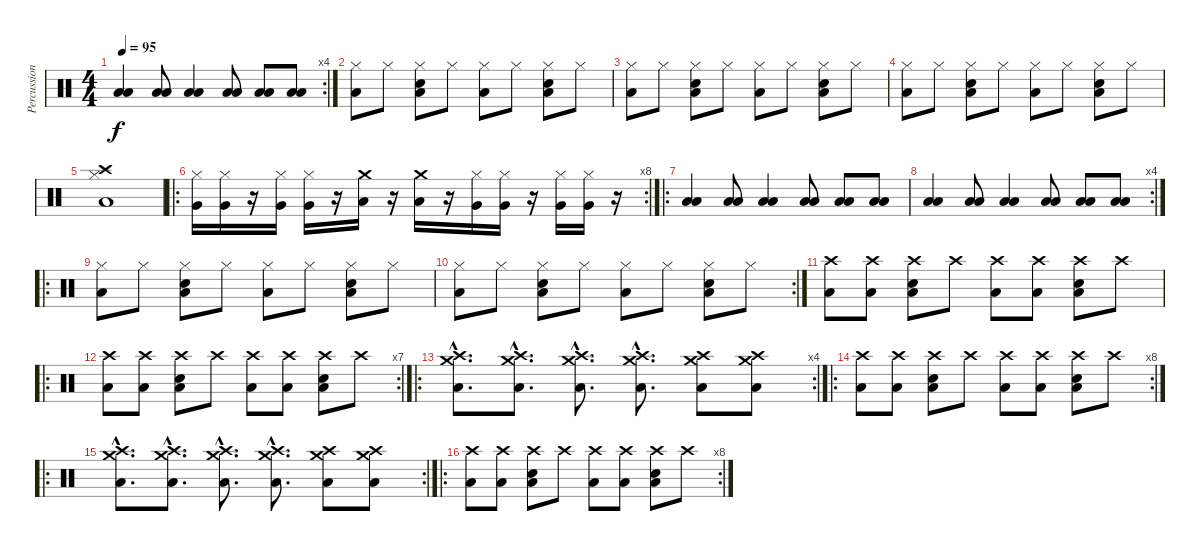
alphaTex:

\track ("Percussions" "Percussion") {instrument percussion}
\staff {score}
\articulation defaults
\rc 4
\ts (4 4)
\tempo 95
\clef neutral
\ks c
("Low Floor Tom (hit)" "Low Tom (hit)").4{dy f} ("Low Floor Tom (hit)" "Low Tom (hit)").8 ("Low Floor Tom (hit)" "Low Tom (hit)").4 ("Low Floor Tom (hit)" "Low Tom (hit)").8 ("Low Floor Tom (hit)" "Low Tom (hit)").8 ("Low Floor Tom (hit)" "Low Tom (hit)").8 |
("Low Floor Tom (hit)" "Hi-Hat (closed)").8 "Hi-Hat (closed)".8 ("Low Floor Tom (hit)" "Snare (hit) 2" "Hi-Hat (closed)").8 "Hi-Hat (closed)".8 ("Low Floor Tom (hit)" "Hi-Hat (closed)").8 "Hi-Hat (closed)".8 ("Low Floor Tom (hit)" "Snare (hit) 2" "Hi-Hat (closed)").8 "Hi-Hat (closed)".8 |
("Low Floor Tom (hit)" "Hi-Hat (closed)").8 "Hi-Hat (closed)".8 ("Low Floor Tom (hit)" "Snare (hit) 2" "Hi-Hat (closed)").8 "Hi-Hat (closed)".8 ("Low Floor Tom (hit)" "Hi-Hat (closed)").8 "Hi-Hat (closed)".8 ("Low Floor Tom (hit)" "Snare (hit) 2" "Hi-Hat (closed)").8 "Hi-Hat (closed)".8 |
("Low Floor Tom (hit)" "Hi-Hat (closed)").8 "Hi-Hat (closed)".8 ("Low Floor Tom (hit)" "Snare (hit) 2" "Hi-Hat (closed)").8 "Hi-Hat (closed)".8 ("Low Floor Tom (hit)" "Hi-Hat (closed)").8 "Hi-Hat (closed)".8 ("Low Floor Tom (hit)" "Snare (hit) 2" "Hi-Hat (closed)").8 "Hi-Hat (closed)".8 |
("Low Floor Tom (hit)" "Crash high (hit)" "Hi-Hat (closed)").1 |
\ro
\rc 8
("Very Low Tom (hit)" "Hi-Hat (closed)").16 ("Very Low Tom (hit)" "Hi-Hat (closed)").16 r.16 ("Very Low Tom (hit)" "Hi-Hat (closed)").16 ("Very Low Tom (hit)" "Hi-Hat (closed)").16 r.16 ("Low Tom (hit)" "Crash medium (hit)").16 r.16 ("Low Tom (hit)" "Crash medium (hit)").16 r.16 ("Very Low Tom (hit)" "Hi-Hat (closed)").16 ("Very Low Tom (hit)" "Hi-Hat (closed)").16 r.16 ("Very Low Tom (hit)" "Hi-Hat (closed)").16 ("Very Low Tom (hit)" "Hi-Hat (closed)").16 r.16 |
\ro
("Low Floor Tom (hit)" "Low Tom (hit)").4 ("Low Floor Tom (hit)" "Low Tom (hit)").8 ("Low Floor Tom (hit)" "Low Tom (hit)").4 ("Low Floor Tom (hit)" "Low Tom (hit)").8 ("Low Floor Tom (hit)" "Low Tom (hit)").8 ("Low Floor Tom (hit)" "Low Tom (hit)").8 |
\rc 4
("Low Floor Tom (hit)" "Low Tom (hit)").4 ("Low Floor Tom (hit)" "Low Tom (hit)").8 ("Low Floor Tom (hit)" "Low Tom (hit)").4 ("Low Floor Tom (hit)" "Low Tom (hit)").8 ("Low Floor Tom (hit)" "Low Tom (hit)").8 ("Low Floor Tom (hit)" "Low Tom (hit)").8 |
\ro
("Low Floor Tom (hit)" "Hi-Hat (closed)").8 "Hi-Hat (closed)".8 ("Low Floor Tom (hit)" "Snare (hit) 2" "Hi-Hat (closed)").8 "Hi-Hat (closed)".8 ("Low Floor Tom (hit)" "Hi-Hat (closed)").8 "Hi-Hat (closed)".8 ("Low Floor Tom (hit)" "Snare (hit) 2" "Hi-Hat (closed)").8 "Hi-Hat (closed)".8 |
\rc 2
("Low Floor Tom (hit)" "Hi-Hat (closed)").8 "Hi-Hat (closed)".8 ("Low Floor Tom (hit)" "Snare (hit) 2" "Hi-Hat (closed)").8 "Hi-Hat (closed)".8 ("Low Floor Tom (hit)" "Hi-Hat (closed)").8 "Hi-Hat (closed)".8 ("Low Floor Tom (hit)" "Snare (hit) 2" "Hi-Hat (closed)").8 "Hi-Hat (closed)".8 |
("Low Floor Tom (hit)" "Crash high (hit)").8 ("Low Floor Tom (hit)" "Crash high (hit)").8 ("Low Floor Tom (hit)" "Snare (hit) 2" "Crash high (hit)").8 "Crash high (hit)".8 ("Low Floor Tom (hit)" "Crash high (hit)").8 ("Low Floor Tom (hit)" "Crash high (hit)").8 ("Low Floor Tom (hit)" "Snare (hit) 2" "Crash high (hit)").8 "Crash high (hit)".8 |
\ro
\rc 7
("Low Floor Tom (hit)" "Crash high (hit)").8 ("Low Floor Tom (hit)" "Crash high (hit)").8 ("Low Floor Tom (hit)" "Snare (hit) 2" "Crash high (hit)").8 "Crash high (hit)".8 ("Low Floor Tom (hit)" "Crash high (hit)").8 ("Low Floor Tom (hit)" "Crash high (hit)").8 ("Low Floor Tom (hit)" "Snare (hit) 2" "Crash high (hit)").8 "Crash high (hit)".8 |
\ro
\rc 4
("Low Floor Tom (hit)"{hac} "Crash medium (hit)"{hac} "Crash high (hit)"{hac}).8{d} ("Low Floor Tom (hit)"{hac} "Crash medium (hit)"{hac} "Crash high (hit)"{hac}).8{d} ("Low Floor Tom (hit)"{hac} "Crash medium (hit)"{hac} "Crash high (hit)"{hac}).8{d} ("Low Floor Tom (hit)"{hac} "Crash medium (hit)"{hac} "Crash high (hit)"{hac}).8{d} ("Low Floor Tom (hit)" "Crash medium (hit)" "Crash high (hit)").8 ("Low Floor Tom (hit)" "Crash medium (hit)" "Crash high (hit)").8 |
\ro
\rc 8
("Low Floor Tom (hit)" "Crash high (hit)").8 ("Low Floor Tom (hit)" "Crash high (hit)").8 ("Low Floor Tom (hit)" "Snare (hit) 2" "Crash high (hit)").8 "Crash high (hit)".8 ("Low Floor Tom (hit)" "Crash high (hit)").8 ("Low Floor Tom (hit)" "Crash high (hit)").8 ("Low Floor Tom (hit)" "Snare (hit) 2" "Crash high (hit)").8 "Crash high (hit)".8 |
\ro
\rc 2
("Low Floor Tom (hit)"{hac} "Crash medium (hit)"{hac} "Crash high (hit)"{hac}).8{d} ("Low Floor Tom (hit)"{hac} "Crash medium (hit)"{hac} "Crash high (hit)"{hac}).8{d} ("Low Floor Tom (hit)"{hac} "Crash medium (hit)"{hac} "Crash high (hit)"{hac}).8{d} ("Low Floor Tom (hit)"{hac} "Crash medium (hit)"{hac} "Crash high (hit)"{hac}).8{d} ("Low Floor Tom (hit)" "Crash medium (hit)" "Crash high (hit)").8 ("Low Floor Tom (hit)" "Crash medium (hit)" "Crash high (hit)").8 |
\ro
\rc 8
("Low Floor Tom (hit)" "Crash high (hit)").8 ("Low Floor Tom (hit)" "Crash high (hit)").8 ("Low Floor Tom (hit)" "Snare (hit) 2" "Crash high (hit)").8 "Crash high (hit)".8 ("Low Floor Tom (hit)" "Crash high (hit)").8 ("Low Floor Tom (hit)" "Crash high (hit)").8 ("Low Floor Tom (hit)" "Snare (hit) 2" "Crash high (hit)").8 "Crash high (hit)".8
